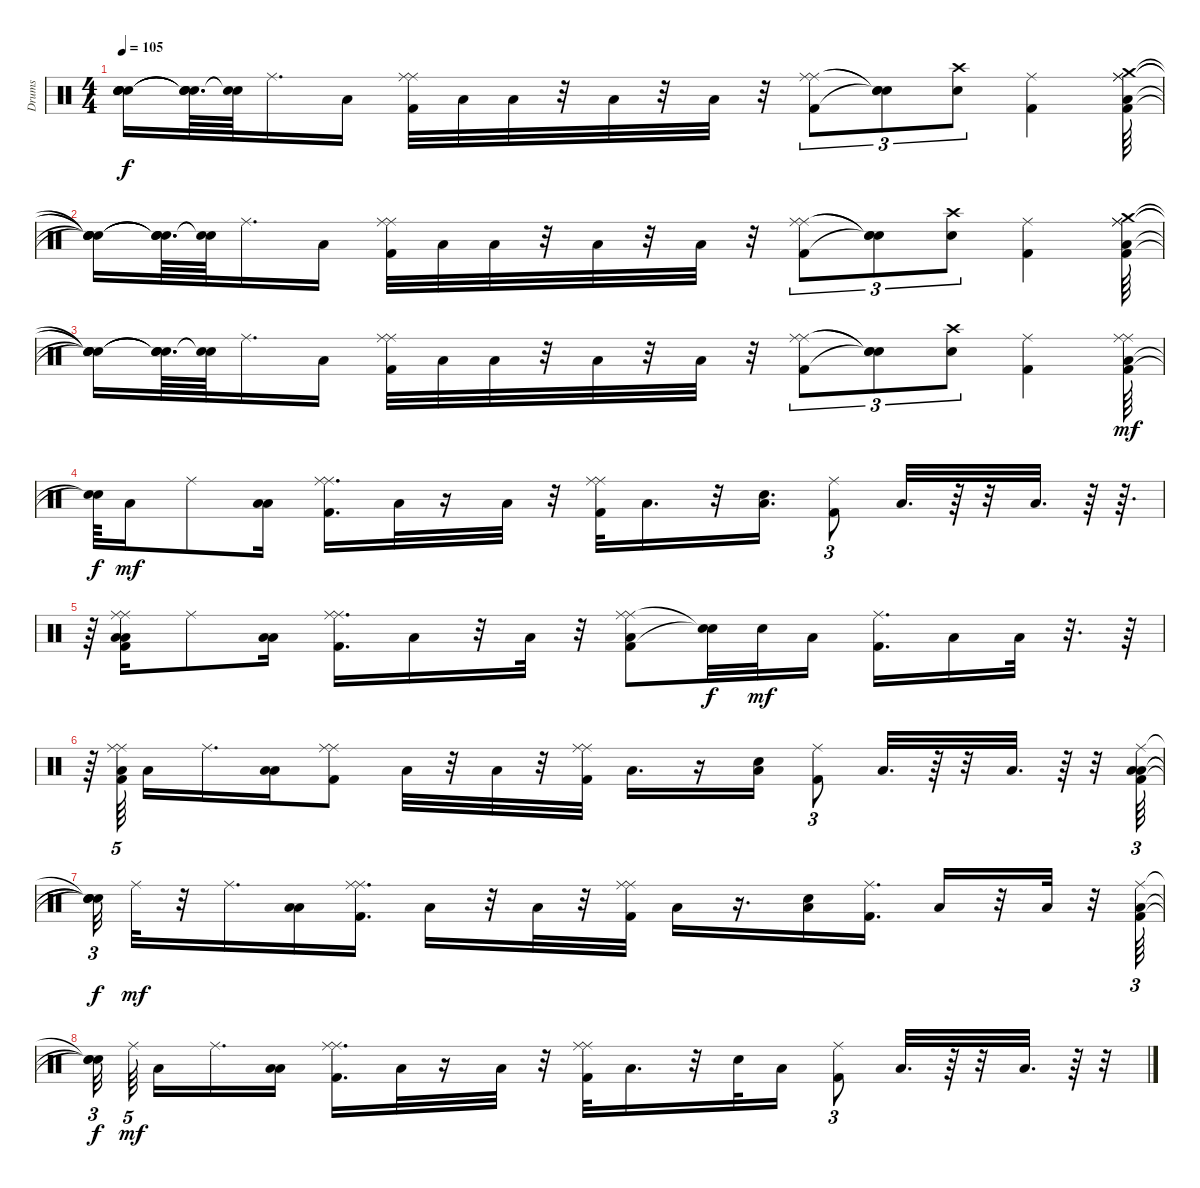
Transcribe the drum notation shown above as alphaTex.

\track ("Drums" "Drums") {instrument percussion}
\staff {score}
\articulation defaults
\ts (4 4)
\tempo 105
\clef neutral
\ks c
("Snare (hit)"{t} "Snare (hit)"{t} "Snare (hit)"{t} "Snare (hit)"{t} "Snare (hit)"{t}).16{dy f} ("Snare (hit)"{t} "Snare (hit)"{t} "Snare (hit)"{t} "Snare (hit)"{t}).64{d} ("Snare (hit)"{t} "Snare (hit)"{t}).64 "Ride (middle)".16{d} "Low Tom (hit)".16 ("Kick (hit) 2" "Ride (middle)" "Ride (middle)").32 "Low Tom (hit)".32 "Low Tom (hit)".32 r.32 "Low Tom (hit)".32 r.32 "Low Tom (hit)".32 r.32 ("Ride (middle)" "Kick (hit) 2" "Ride (middle)").8{tu (3 2)} ("Snare (hit)"{t} "Snare (hit)"{t} "Snare (hit)"{t}).8{tu (3 2)} ("Electric Snare (hit)" "Crash high (hit)").8{tu (3 2)} ("Kick (hit) 2" "Ride (middle)").4 ("Low Tom (hit)" "Crash medium (hit)" "Kick (hit) 2" "Ride (middle)" "Ride (middle)").64 |
("Snare (hit)"{t} "Snare (hit)"{t} "Snare (hit)"{t} "Snare (hit)"{t} "Snare (hit)"{t}).16 ("Snare (hit)"{t} "Snare (hit)"{t} "Snare (hit)"{t} "Snare (hit)"{t}).64{d} ("Snare (hit)"{t} "Snare (hit)"{t}).64 "Ride (middle)".16{d} "Low Tom (hit)".16 ("Kick (hit) 2" "Ride (middle)" "Ride (middle)").32 "Low Tom (hit)".32 "Low Tom (hit)".32 r.32 "Low Tom (hit)".32 r.32 "Low Tom (hit)".32 r.32 ("Ride (middle)" "Kick (hit) 2" "Ride (middle)").8{tu (3 2)} ("Snare (hit)"{t} "Snare (hit)"{t} "Snare (hit)"{t}).8{tu (3 2)} ("Electric Snare (hit)" "Crash high (hit)").8{tu (3 2)} ("Kick (hit) 2" "Ride (middle)").4 ("Low Tom (hit)" "Crash medium (hit)" "Kick (hit) 2" "Ride (middle)" "Ride (middle)").64 |
("Snare (hit)"{t} "Snare (hit)"{t} "Snare (hit)"{t} "Snare (hit)"{t} "Snare (hit)"{t}).16 ("Snare (hit)"{t} "Snare (hit)"{t} "Snare (hit)"{t} "Snare (hit)"{t}).64{d} ("Snare (hit)"{t} "Snare (hit)"{t}).64 "Ride (middle)".16{d} "Low Tom (hit)".16 ("Kick (hit) 2" "Ride (middle)" "Ride (middle)").32 "Low Tom (hit)".32 "Low Tom (hit)".32 r.32 "Low Tom (hit)".32 r.32 "Low Tom (hit)".32 r.32 ("Ride (middle)" "Kick (hit) 2" "Ride (middle)").8{tu (3 2)} ("Snare (hit)"{t} "Snare (hit)"{t} "Snare (hit)"{t}).8{tu (3 2)} ("Electric Snare (hit)" "Crash high (hit)").8{tu (3 2)} ("Kick (hit) 2" "Ride (middle)").4 ("Low Tom (hit)" "Kick (hit) 2" "Ride (middle)" "Ride (middle)").64{dy mf} |
("Snare (hit)"{t} "Snare (hit)"{t}).64{dy f} "Low Tom (hit)".16{dy mf} "Ride (middle)".8 ("Low Tom (hit)" "Low Tom (hit)").16 ("Kick (hit) 2" "Ride (middle)" "Ride (middle)").16{d} "Low Tom (hit)".32 r.16 "Low Tom (hit)".32 r.32 ("Ride (middle)" "Kick (hit) 2" "Ride (middle)").32 "Low Tom (hit)".16{d} r.32 ("Electric Snare (hit)" "Low Tom (hit)").16{d} ("Kick (hit) 2" "Ride (middle)").8{tu (3 2)} "Low Tom (hit)".32{d} r.64 r.32 "Low Tom (hit)".32{d} r.64 r.64{d} |
r.64 ("Low Tom (hit)" "Kick (hit) 2" "Ride (middle)" "Low Tom (hit)" "Ride (middle)").16 "Ride (middle)".8 ("Low Tom (hit)" "Low Tom (hit)").16 ("Kick (hit) 2" "Ride (middle)" "Ride (middle)").16{d} "Low Tom (hit)".16 r.32 "Low Tom (hit)".32 r.32 ("Ride (middle)" "Kick (hit) 2" "Ride (middle)" "Low Tom (hit)").8 ("Snare (hit)"{t} "Snare (hit)"{t}).32{dy f} "Electric Snare (hit)".32{dy mf} "Low Tom (hit)".16 ("Kick (hit) 2" "Ride (middle)").16{d} "Low Tom (hit)".16 "Low Tom (hit)".32 r.32{d} r.64 |
r.64 ("Low Tom (hit)" "Kick (hit) 2" "Ride (middle)" "Ride (middle)").64{tu (5 4)} "Low Tom (hit)".16 "Ride (middle)".16{d} ("Low Tom (hit)" "Low Tom (hit)").16 ("Kick (hit) 2" "Ride (middle)" "Ride (middle)").8 "Low Tom (hit)".32 r.32 "Low Tom (hit)".32 r.32 ("Ride (middle)" "Kick (hit) 2" "Ride (middle)").32 "Low Tom (hit)".16{d} r.16 ("Electric Snare (hit)" "Low Tom (hit)").16 ("Kick (hit) 2" "Ride (middle)").8{tu (3 2)} "Low Tom (hit)".32{d} r.64 r.32 "Low Tom (hit)".32{d} r.64 r.32 ("Low Tom (hit)" "Kick (hit) 2" "Ride (middle)" "Low Tom (hit)").64{tu (3 2)} |
("Snare (hit)"{t} "Snare (hit)"{t} "Snare (hit)"{t} "Snare (hit)"{t}).32{tu (3 2) dy f} "Ride (middle)".32{dy mf} r.32 "Ride (middle)".16{d} ("Low Tom (hit)" "Low Tom (hit)").16 ("Kick (hit) 2" "Ride (middle)" "Ride (middle)").16{d} "Low Tom (hit)".16 r.32 "Low Tom (hit)".32 r.32 ("Ride (middle)" "Kick (hit) 2" "Ride (middle)").32 "Low Tom (hit)".16 r.16{d} ("Electric Snare (hit)" "Low Tom (hit)").16 ("Kick (hit) 2" "Ride (middle)").16{d} "Low Tom (hit)".16 r.32 "Low Tom (hit)".32 r.32 ("Low Tom (hit)" "Kick (hit) 2" "Ride (middle)").64{tu (3 2)} |
("Snare (hit)"{t} "Snare (hit)"{t} "Snare (hit)"{t}).32{tu (3 2) dy f} "Ride (middle)".64{tu (5 4) dy mf} "Low Tom (hit)".16 "Ride (middle)".16{d} ("Low Tom (hit)" "Low Tom (hit)").16 ("Kick (hit) 2" "Ride (middle)" "Ride (middle)").16{d} "Low Tom (hit)".32 r.16 "Low Tom (hit)".32 r.32 ("Ride (middle)" "Kick (hit) 2" "Ride (middle)").32 "Low Tom (hit)".16{d} r.32 "Electric Snare (hit)".32 "Low Tom (hit)".16 ("Kick (hit) 2" "Ride (middle)").8{tu (3 2)} "Low Tom (hit)".32{d} r.64 r.32 "Low Tom (hit)".32{d} r.64 r.32
